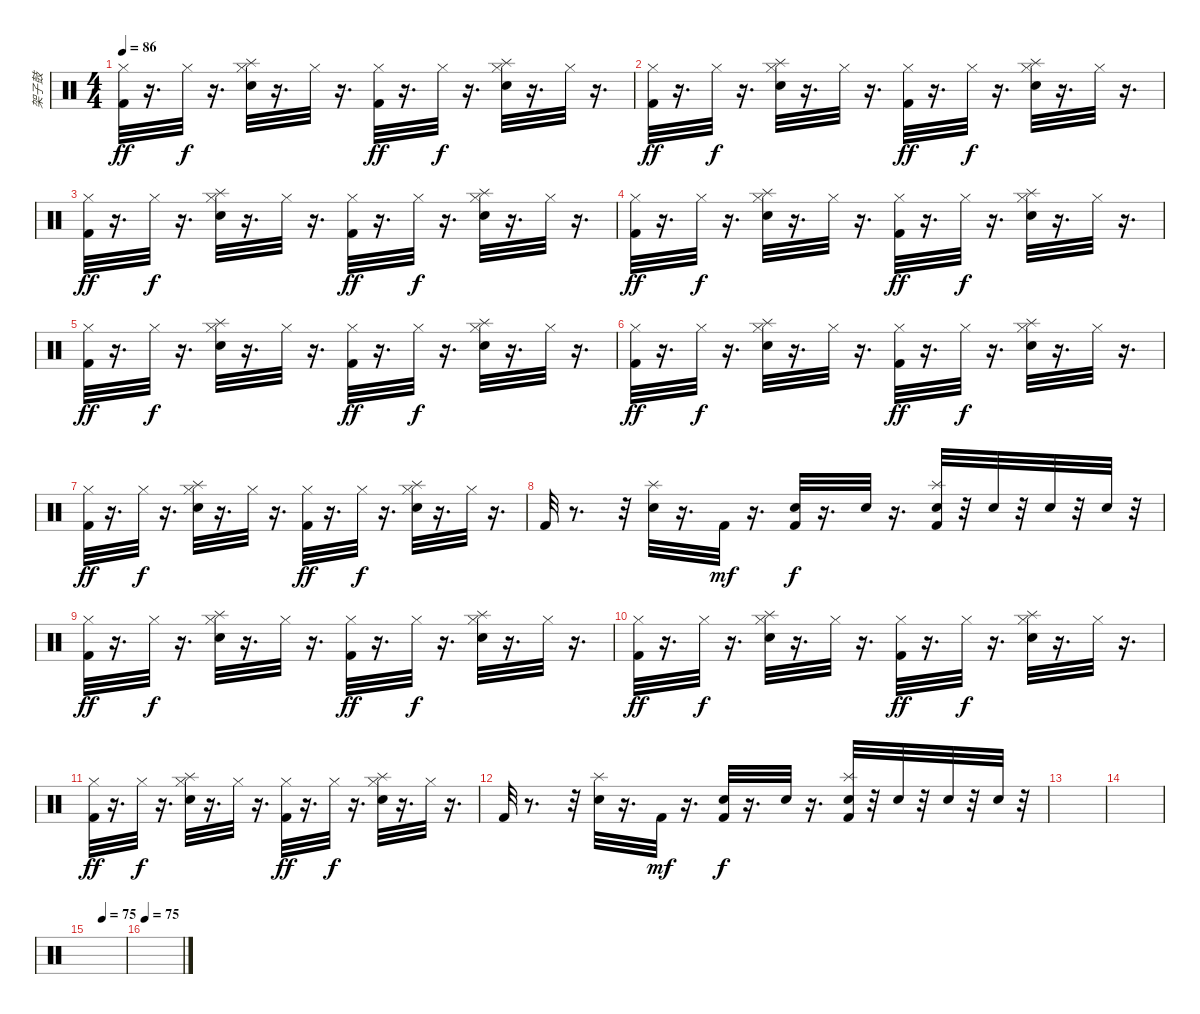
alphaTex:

\track ("架子鼓" "架子鼓") {instrument percussion}
\staff {score}
\articulation defaults
\ts (4 4)
\tempo 86
\clef neutral
\ks c
("Hi-Hat (closed)" "Kick (hit) 2").32{dy ff} r.16{d} "Hi-Hat (closed)".32{dy f} r.16{d} ("Splash (hit)" "Hi-Hat (closed)" "Electric Snare (hit)").32 r.16{d} "Hi-Hat (closed)".32 r.16{d} ("Hi-Hat (closed)" "Kick (hit) 2").32{dy ff} r.16{d} "Hi-Hat (closed)".32{dy f} r.16{d} ("Splash (hit)" "Hi-Hat (closed)" "Electric Snare (hit)").32 r.16{d} "Hi-Hat (closed)".32 r.16{d} |
("Hi-Hat (closed)" "Kick (hit) 2").32{dy ff} r.16{d} "Hi-Hat (closed)".32{dy f} r.16{d} ("Splash (hit)" "Hi-Hat (closed)" "Electric Snare (hit)").32 r.16{d} "Hi-Hat (closed)".32 r.16{d} ("Hi-Hat (closed)" "Kick (hit) 2").32{dy ff} r.16{d} "Hi-Hat (closed)".32{dy f} r.16{d} ("Splash (hit)" "Hi-Hat (closed)" "Electric Snare (hit)").32 r.16{d} "Hi-Hat (closed)".32 r.16{d} |
("Hi-Hat (closed)" "Kick (hit) 2").32{dy ff} r.16{d} "Hi-Hat (closed)".32{dy f} r.16{d} ("Splash (hit)" "Hi-Hat (closed)" "Electric Snare (hit)").32 r.16{d} "Hi-Hat (closed)".32 r.16{d} ("Hi-Hat (closed)" "Kick (hit) 2").32{dy ff} r.16{d} "Hi-Hat (closed)".32{dy f} r.16{d} ("Splash (hit)" "Hi-Hat (closed)" "Electric Snare (hit)").32 r.16{d} "Hi-Hat (closed)".32 r.16{d} |
("Hi-Hat (closed)" "Kick (hit) 2").32{dy ff} r.16{d} "Hi-Hat (closed)".32{dy f} r.16{d} ("Splash (hit)" "Hi-Hat (closed)" "Electric Snare (hit)").32 r.16{d} "Hi-Hat (closed)".32 r.16{d} ("Hi-Hat (closed)" "Kick (hit) 2").32{dy ff} r.16{d} "Hi-Hat (closed)".32{dy f} r.16{d} ("Splash (hit)" "Hi-Hat (closed)" "Electric Snare (hit)").32 r.16{d} "Hi-Hat (closed)".32 r.16{d} |
("Hi-Hat (closed)" "Kick (hit) 2").32{dy ff} r.16{d} "Hi-Hat (closed)".32{dy f} r.16{d} ("Splash (hit)" "Hi-Hat (closed)" "Electric Snare (hit)").32 r.16{d} "Hi-Hat (closed)".32 r.16{d} ("Hi-Hat (closed)" "Kick (hit) 2").32{dy ff} r.16{d} "Hi-Hat (closed)".32{dy f} r.16{d} ("Splash (hit)" "Hi-Hat (closed)" "Electric Snare (hit)").32 r.16{d} "Hi-Hat (closed)".32 r.16{d} |
("Hi-Hat (closed)" "Kick (hit) 2").32{dy ff} r.16{d} "Hi-Hat (closed)".32{dy f} r.16{d} ("Splash (hit)" "Hi-Hat (closed)" "Electric Snare (hit)").32 r.16{d} "Hi-Hat (closed)".32 r.16{d} ("Hi-Hat (closed)" "Kick (hit) 2").32{dy ff} r.16{d} "Hi-Hat (closed)".32{dy f} r.16{d} ("Splash (hit)" "Hi-Hat (closed)" "Electric Snare (hit)").32 r.16{d} "Hi-Hat (closed)".32 r.16{d} |
("Hi-Hat (closed)" "Kick (hit) 2").32{dy ff} r.16{d} "Hi-Hat (closed)".32{dy f} r.16{d} ("Splash (hit)" "Hi-Hat (closed)" "Electric Snare (hit)").32 r.16{d} "Hi-Hat (closed)".32 r.16{d} ("Hi-Hat (closed)" "Kick (hit) 2").32{dy ff} r.16{d} "Hi-Hat (closed)".32{dy f} r.16{d} ("Splash (hit)" "Hi-Hat (closed)" "Electric Snare (hit)").32 r.16{d} "Hi-Hat (closed)".32 r.16{d} |
"Kick (hit) 2".32 r.8{d} r.32 ("Splash (hit)" "Electric Snare (hit)").32 r.16{d} "Kick (hit) 2".32{dy mf} r.16{d} ("Electric Snare (hit)" "Kick (hit) 2").32{dy f} r.16{d} "Electric Snare (hit)".32 r.16{d} ("Splash (hit)" "Electric Snare (hit)" "Kick (hit) 2").32 r.32 "Electric Snare (hit)".32 r.32 "Electric Snare (hit)".32 r.32 "Electric Snare (hit)".32 r.32 |
("Hi-Hat (closed)" "Kick (hit) 2").32{dy ff} r.16{d} "Hi-Hat (closed)".32{dy f} r.16{d} ("Splash (hit)" "Hi-Hat (closed)" "Electric Snare (hit)").32 r.16{d} "Hi-Hat (closed)".32 r.16{d} ("Hi-Hat (closed)" "Kick (hit) 2").32{dy ff} r.16{d} "Hi-Hat (closed)".32{dy f} r.16{d} ("Splash (hit)" "Hi-Hat (closed)" "Electric Snare (hit)").32 r.16{d} "Hi-Hat (closed)".32 r.16{d} |
("Hi-Hat (closed)" "Kick (hit) 2").32{dy ff} r.16{d} "Hi-Hat (closed)".32{dy f} r.16{d} ("Splash (hit)" "Hi-Hat (closed)" "Electric Snare (hit)").32 r.16{d} "Hi-Hat (closed)".32 r.16{d} ("Hi-Hat (closed)" "Kick (hit) 2").32{dy ff} r.16{d} "Hi-Hat (closed)".32{dy f} r.16{d} ("Splash (hit)" "Hi-Hat (closed)" "Electric Snare (hit)").32 r.16{d} "Hi-Hat (closed)".32 r.16{d} |
("Hi-Hat (closed)" "Kick (hit) 2").32{dy ff} r.16{d} "Hi-Hat (closed)".32{dy f} r.16{d} ("Splash (hit)" "Hi-Hat (closed)" "Electric Snare (hit)").32 r.16{d} "Hi-Hat (closed)".32 r.16{d} ("Hi-Hat (closed)" "Kick (hit) 2").32{dy ff} r.16{d} "Hi-Hat (closed)".32{dy f} r.16{d} ("Splash (hit)" "Hi-Hat (closed)" "Electric Snare (hit)").32 r.16{d} "Hi-Hat (closed)".32 r.16{d} |
"Kick (hit) 2".32 r.8{d} r.32 ("Splash (hit)" "Electric Snare (hit)").32 r.16{d} "Kick (hit) 2".32{dy mf} r.16{d} ("Electric Snare (hit)" "Kick (hit) 2").32{dy f} r.16{d} "Electric Snare (hit)".32 r.16{d} ("Splash (hit)" "Electric Snare (hit)" "Kick (hit) 2").32 r.32 "Electric Snare (hit)".32 r.32 "Electric Snare (hit)".32 r.32 "Electric Snare (hit)".32 r.32 |
|
|
\tempo (75 0.375)
|
\tempo 75
